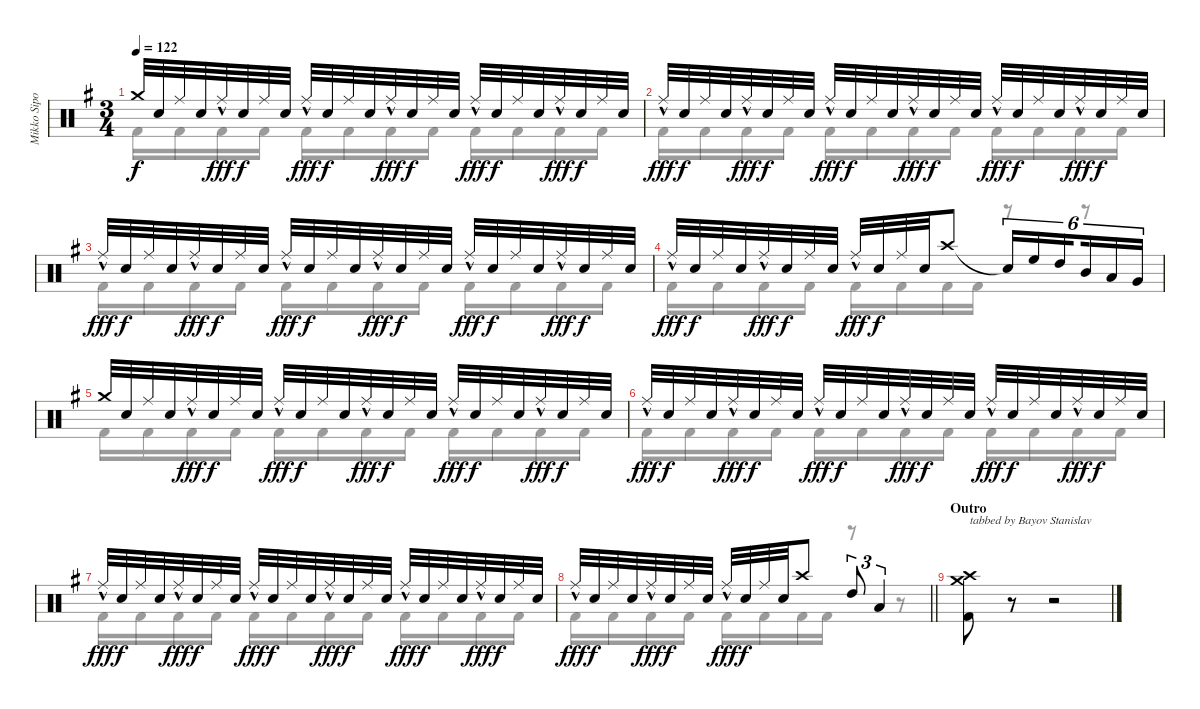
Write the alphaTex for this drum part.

\track ("Mikko Sipola - drums" "Mikko Sipo") {instrument percussion}
\staff {score}
\articulation defaults
\voice
\ts (3 4)
\tempo 122
\clef neutral
\ks eminor "Crash medium (hit)".32{dy f} "Electric Snare (hit)".32 "Ride (middle)".32 "Electric Snare (hit)".32 "Ride (middle)"{hac}.32{dy fff} "Electric Snare (hit)".32{dy f} "Ride (middle)".32 "Electric Snare (hit)".32 "Ride (middle)"{hac}.32{dy fff} "Electric Snare (hit)".32{dy f} "Ride (middle)".32 "Electric Snare (hit)".32 "Ride (middle)"{hac}.32{dy fff} "Electric Snare (hit)".32{dy f} "Ride (middle)".32 "Electric Snare (hit)".32 "Ride (middle)"{hac}.32{dy fff} "Electric Snare (hit)".32{dy f} "Ride (middle)".32 "Electric Snare (hit)".32 "Ride (middle)"{hac}.32{dy fff} "Electric Snare (hit)".32{dy f} "Ride (middle)".32 "Electric Snare (hit)".32
|
"Ride (middle)"{hac}.32{dy fff} "Electric Snare (hit)".32{dy f} "Ride (middle)".32 "Electric Snare (hit)".32 "Ride (middle)"{hac}.32{dy fff} "Electric Snare (hit)".32{dy f} "Ride (middle)".32 "Electric Snare (hit)".32 "Ride (middle)"{hac}.32{dy fff} "Electric Snare (hit)".32{dy f} "Ride (middle)".32 "Electric Snare (hit)".32 "Ride (middle)"{hac}.32{dy fff} "Electric Snare (hit)".32{dy f} "Ride (middle)".32 "Electric Snare (hit)".32 "Ride (middle)"{hac}.32{dy fff} "Electric Snare (hit)".32{dy f} "Ride (middle)".32 "Electric Snare (hit)".32 "Ride (middle)"{hac}.32{dy fff} "Electric Snare (hit)".32{dy f} "Ride (middle)".32 "Electric Snare (hit)".32 |
"Ride (middle)"{hac}.32{dy fff} "Electric Snare (hit)".32{dy f} "Ride (middle)".32 "Electric Snare (hit)".32 "Ride (middle)"{hac}.32{dy fff} "Electric Snare (hit)".32{dy f} "Ride (middle)".32 "Electric Snare (hit)".32 "Ride (middle)"{hac}.32{dy fff} "Electric Snare (hit)".32{dy f} "Ride (middle)".32 "Electric Snare (hit)".32 "Ride (middle)"{hac}.32{dy fff} "Electric Snare (hit)".32{dy f} "Ride (middle)".32 "Electric Snare (hit)".32 "Ride (middle)"{hac}.32{dy fff} "Electric Snare (hit)".32{dy f} "Ride (middle)".32 "Electric Snare (hit)".32 "Ride (middle)"{hac}.32{dy fff} "Electric Snare (hit)".32{dy f} "Ride (middle)".32 "Electric Snare (hit)".32 |
"Ride (middle)"{hac}.32{dy fff} "Electric Snare (hit)".32{dy f} "Ride (middle)".32 "Electric Snare (hit)".32 "Ride (middle)"{hac}.32{dy fff} "Electric Snare (hit)".32{dy f} "Ride (middle)".32 "Electric Snare (hit)".32 "Ride (middle)"{hac}.32{dy fff} "Electric Snare (hit)".32{dy f} "Ride (middle)".32 "Electric Snare (hit)".32 "Crash high (hit)".8 "Snare (hit)"{t}.16{tu (6 4)} "High Floor Tom (hit)".16{tu (6 4)} "High Tom (hit)".16{tu (6 4) beam splitsecondary} "Mid Tom (hit)".16{tu (6 4)} "Low Tom (hit)".16{tu (6 4)} "Very Low Tom (hit)".16{tu (6 4)} |
"Crash medium (hit)".32 "Electric Snare (hit)".32 "Ride (middle)".32 "Electric Snare (hit)".32 "Ride (middle)"{hac}.32{dy fff} "Electric Snare (hit)".32{dy f} "Ride (middle)".32 "Electric Snare (hit)".32 "Ride (middle)"{hac}.32{dy fff} "Electric Snare (hit)".32{dy f} "Ride (middle)".32 "Electric Snare (hit)".32 "Ride (middle)"{hac}.32{dy fff} "Electric Snare (hit)".32{dy f} "Ride (middle)".32 "Electric Snare (hit)".32 "Ride (middle)"{hac}.32{dy fff} "Electric Snare (hit)".32{dy f} "Ride (middle)".32 "Electric Snare (hit)".32 "Ride (middle)"{hac}.32{dy fff} "Electric Snare (hit)".32{dy f} "Ride (middle)".32 "Electric Snare (hit)".32 |
"Ride (middle)"{hac}.32{dy fff} "Electric Snare (hit)".32{dy f} "Ride (middle)".32 "Electric Snare (hit)".32 "Ride (middle)"{hac}.32{dy fff} "Electric Snare (hit)".32{dy f} "Ride (middle)".32 "Electric Snare (hit)".32 "Ride (middle)"{hac}.32{dy fff} "Electric Snare (hit)".32{dy f} "Ride (middle)".32 "Electric Snare (hit)".32 "Ride (middle)"{hac}.32{dy fff} "Electric Snare (hit)".32{dy f} "Ride (middle)".32 "Electric Snare (hit)".32 "Ride (middle)"{hac}.32{dy fff} "Electric Snare (hit)".32{dy f} "Ride (middle)".32 "Electric Snare (hit)".32 "Ride (middle)"{hac}.32{dy fff} "Electric Snare (hit)".32{dy f} "Ride (middle)".32 "Electric Snare (hit)".32 |
"Ride (middle)"{hac}.32{dy fff} "Electric Snare (hit)".32{dy f} "Ride (middle)".32 "Electric Snare (hit)".32 "Ride (middle)"{hac}.32{dy fff} "Electric Snare (hit)".32{dy f} "Ride (middle)".32 "Electric Snare (hit)".32 "Ride (middle)"{hac}.32{dy fff} "Electric Snare (hit)".32{dy f} "Ride (middle)".32 "Electric Snare (hit)".32 "Ride (middle)"{hac}.32{dy fff} "Electric Snare (hit)".32{dy f} "Ride (middle)".32 "Electric Snare (hit)".32 "Ride (middle)"{hac}.32{dy fff} "Electric Snare (hit)".32{dy f} "Ride (middle)".32 "Electric Snare (hit)".32 "Ride (middle)"{hac}.32{dy fff} "Electric Snare (hit)".32{dy f} "Ride (middle)".32 "Electric Snare (hit)".32 |
\barLineRight lightlight "Ride (middle)"{hac}.32{dy fff} "Electric Snare (hit)".32{dy f} "Ride (middle)".32 "Electric Snare (hit)".32 "Ride (middle)"{hac}.32{dy fff} "Electric Snare (hit)".32{dy f} "Ride (middle)".32 "Electric Snare (hit)".32 "Ride (middle)"{hac}.32{dy fff} "Electric Snare (hit)".32{dy f} "Ride (middle)".32 "Electric Snare (hit)".32 "Crash high (hit)".8 "High Tom (hit)".8{tu (3 2)} "Low Tom (hit)".4{tu (3 2)}
|
\section ("" "Outro")
("Crash medium (hit)" "Crash high (hit)" "Kick (hit) 2").8{txt "tabbed by Bayov Stanislav"} r.8 r.2 |
|
|
|
|
|
|
\voice
\clef neutral
\ottava regular
\simile none
\ks eminor "Kick (hit) 2".16{dy f} "Kick (hit) 2".16 "Kick (hit) 2".16 "Kick (hit) 2".16 "Kick (hit) 2".16 "Kick (hit) 2".16 "Kick (hit) 2".16 "Kick (hit) 2".16 "Kick (hit) 2".16 "Kick (hit) 2".16 "Kick (hit) 2".16 "Kick (hit) 2".16
|
"Kick (hit) 2".16 "Kick (hit) 2".16 "Kick (hit) 2".16 "Kick (hit) 2".16 "Kick (hit) 2".16 "Kick (hit) 2".16 "Kick (hit) 2".16 "Kick (hit) 2".16 "Kick (hit) 2".16 "Kick (hit) 2".16 "Kick (hit) 2".16 "Kick (hit) 2".16 |
"Kick (hit) 2".16 "Kick (hit) 2".16 "Kick (hit) 2".16 "Kick (hit) 2".16 "Kick (hit) 2".16 "Kick (hit) 2".16 "Kick (hit) 2".16 "Kick (hit) 2".16 "Kick (hit) 2".16 "Kick (hit) 2".16 "Kick (hit) 2".16 "Kick (hit) 2".16 |
"Kick (hit) 2".16 "Kick (hit) 2".16 "Kick (hit) 2".16 "Kick (hit) 2".16 "Kick (hit) 2".16 "Kick (hit) 2".16 "Kick (hit) 2".16 "Kick (hit) 2".16 r.8 r.8 |
"Kick (hit) 2".16 "Kick (hit) 2".16 "Kick (hit) 2".16 "Kick (hit) 2".16 "Kick (hit) 2".16 "Kick (hit) 2".16 "Kick (hit) 2".16 "Kick (hit) 2".16 "Kick (hit) 2".16 "Kick (hit) 2".16 "Kick (hit) 2".16 "Kick (hit) 2".16 |
"Kick (hit) 2".16 "Kick (hit) 2".16 "Kick (hit) 2".16 "Kick (hit) 2".16 "Kick (hit) 2".16 "Kick (hit) 2".16 "Kick (hit) 2".16 "Kick (hit) 2".16 "Kick (hit) 2".16 "Kick (hit) 2".16 "Kick (hit) 2".16 "Kick (hit) 2".16 |
"Kick (hit) 2".16 "Kick (hit) 2".16 "Kick (hit) 2".16 "Kick (hit) 2".16 "Kick (hit) 2".16 "Kick (hit) 2".16 "Kick (hit) 2".16 "Kick (hit) 2".16 "Kick (hit) 2".16 "Kick (hit) 2".16 "Kick (hit) 2".16 "Kick (hit) 2".16 |
\barLineRight lightlight "Kick (hit) 2".16 "Kick (hit) 2".16 "Kick (hit) 2".16 "Kick (hit) 2".16 "Kick (hit) 2".16 "Kick (hit) 2".16 "Kick (hit) 2".16 "Kick (hit) 2".16
r.8 r.8 |
|
|
|
|
|
|
|
